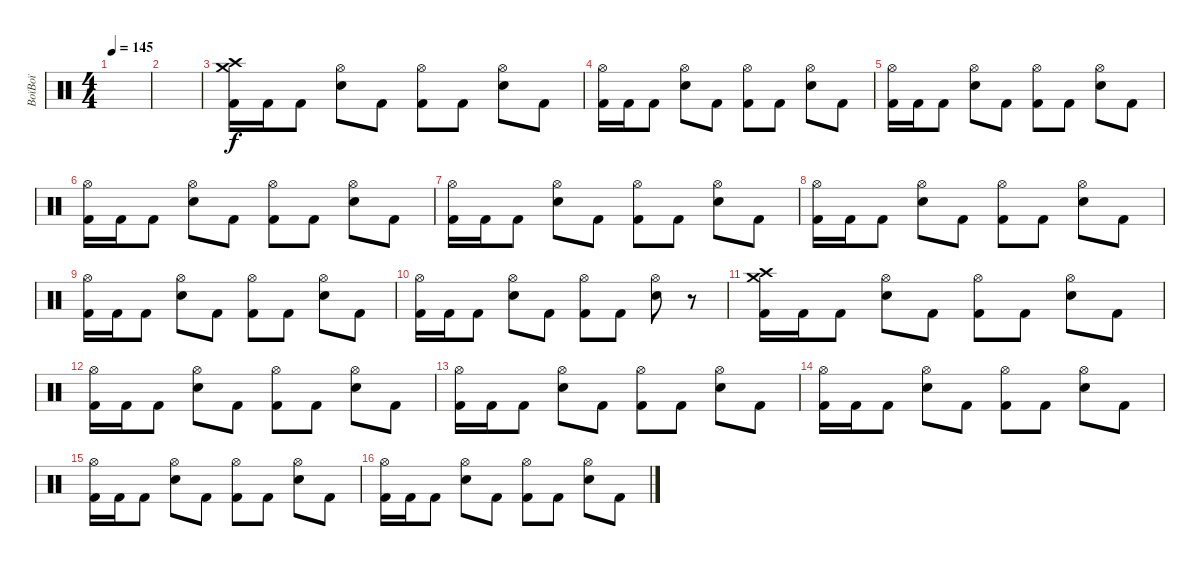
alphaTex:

\track ("BoïBoï" "BoïBoï") {instrument percussion}
\staff {score}
\articulation defaults
\ts (4 4)
\tempo 145
\clef neutral
\ks c
|
|
("Crash medium (hit)" "Crash high (hit)" "Kick (hit) 2").16 "Kick (hit) 2".16 "Kick (hit) 2".8 ("Hi-Hat (open)" "Electric Snare (hit)").8 "Kick (hit) 2".8 ("Hi-Hat (open)" "Kick (hit) 2").8 "Kick (hit) 2".8 ("Hi-Hat (open)" "Electric Snare (hit)").8 "Kick (hit) 2".8 |
("Hi-Hat (open)" "Kick (hit) 2").16 "Kick (hit) 2".16 "Kick (hit) 2".8 ("Hi-Hat (open)" "Electric Snare (hit)").8 "Kick (hit) 2".8 ("Hi-Hat (open)" "Kick (hit) 2").8 "Kick (hit) 2".8 ("Hi-Hat (open)" "Electric Snare (hit)").8 "Kick (hit) 2".8 |
("Hi-Hat (open)" "Kick (hit) 2").16 "Kick (hit) 2".16 "Kick (hit) 2".8 ("Hi-Hat (open)" "Electric Snare (hit)").8 "Kick (hit) 2".8 ("Hi-Hat (open)" "Kick (hit) 2").8 "Kick (hit) 2".8 ("Hi-Hat (open)" "Electric Snare (hit)").8 "Kick (hit) 2".8 |
("Hi-Hat (open)" "Kick (hit) 2").16 "Kick (hit) 2".16 "Kick (hit) 2".8 ("Hi-Hat (open)" "Electric Snare (hit)").8 "Kick (hit) 2".8 ("Hi-Hat (open)" "Kick (hit) 2").8 "Kick (hit) 2".8 ("Hi-Hat (open)" "Electric Snare (hit)").8 "Kick (hit) 2".8 |
("Hi-Hat (open)" "Kick (hit) 2").16 "Kick (hit) 2".16 "Kick (hit) 2".8 ("Hi-Hat (open)" "Electric Snare (hit)").8 "Kick (hit) 2".8 ("Hi-Hat (open)" "Kick (hit) 2").8 "Kick (hit) 2".8 ("Hi-Hat (open)" "Electric Snare (hit)").8 "Kick (hit) 2".8 |
("Hi-Hat (open)" "Kick (hit) 2").16 "Kick (hit) 2".16 "Kick (hit) 2".8 ("Hi-Hat (open)" "Electric Snare (hit)").8 "Kick (hit) 2".8 ("Hi-Hat (open)" "Kick (hit) 2").8 "Kick (hit) 2".8 ("Hi-Hat (open)" "Electric Snare (hit)").8 "Kick (hit) 2".8 |
("Hi-Hat (open)" "Kick (hit) 2").16 "Kick (hit) 2".16 "Kick (hit) 2".8 ("Hi-Hat (open)" "Electric Snare (hit)").8 "Kick (hit) 2".8 ("Hi-Hat (open)" "Kick (hit) 2").8 "Kick (hit) 2".8 ("Hi-Hat (open)" "Electric Snare (hit)").8 "Kick (hit) 2".8 |
("Hi-Hat (open)" "Kick (hit) 2").16 "Kick (hit) 2".16 "Kick (hit) 2".8 ("Hi-Hat (open)" "Electric Snare (hit)").8 "Kick (hit) 2".8 ("Hi-Hat (open)" "Kick (hit) 2").8 "Kick (hit) 2".8 ("Hi-Hat (open)" "Electric Snare (hit)").8 r.8 |
("Crash medium (hit)" "Crash high (hit)" "Kick (hit) 2").16 "Kick (hit) 2".16 "Kick (hit) 2".8 ("Hi-Hat (open)" "Electric Snare (hit)").8 "Kick (hit) 2".8 ("Hi-Hat (open)" "Kick (hit) 2").8 "Kick (hit) 2".8 ("Hi-Hat (open)" "Electric Snare (hit)").8 "Kick (hit) 2".8 |
("Hi-Hat (open)" "Kick (hit) 2").16 "Kick (hit) 2".16 "Kick (hit) 2".8 ("Hi-Hat (open)" "Electric Snare (hit)").8 "Kick (hit) 2".8 ("Hi-Hat (open)" "Kick (hit) 2").8 "Kick (hit) 2".8 ("Hi-Hat (open)" "Electric Snare (hit)").8 "Kick (hit) 2".8 |
("Hi-Hat (open)" "Kick (hit) 2").16 "Kick (hit) 2".16 "Kick (hit) 2".8 ("Hi-Hat (open)" "Electric Snare (hit)").8 "Kick (hit) 2".8 ("Hi-Hat (open)" "Kick (hit) 2").8 "Kick (hit) 2".8 ("Hi-Hat (open)" "Electric Snare (hit)").8 "Kick (hit) 2".8 |
("Hi-Hat (open)" "Kick (hit) 2").16 "Kick (hit) 2".16 "Kick (hit) 2".8 ("Hi-Hat (open)" "Electric Snare (hit)").8 "Kick (hit) 2".8 ("Hi-Hat (open)" "Kick (hit) 2").8 "Kick (hit) 2".8 ("Hi-Hat (open)" "Electric Snare (hit)").8 "Kick (hit) 2".8 |
("Hi-Hat (open)" "Kick (hit) 2").16 "Kick (hit) 2".16 "Kick (hit) 2".8 ("Hi-Hat (open)" "Electric Snare (hit)").8 "Kick (hit) 2".8 ("Hi-Hat (open)" "Kick (hit) 2").8 "Kick (hit) 2".8 ("Hi-Hat (open)" "Electric Snare (hit)").8 "Kick (hit) 2".8 |
("Hi-Hat (open)" "Kick (hit) 2").16 "Kick (hit) 2".16 "Kick (hit) 2".8 ("Hi-Hat (open)" "Electric Snare (hit)").8 "Kick (hit) 2".8 ("Hi-Hat (open)" "Kick (hit) 2").8 "Kick (hit) 2".8 ("Hi-Hat (open)" "Electric Snare (hit)").8 "Kick (hit) 2".8
